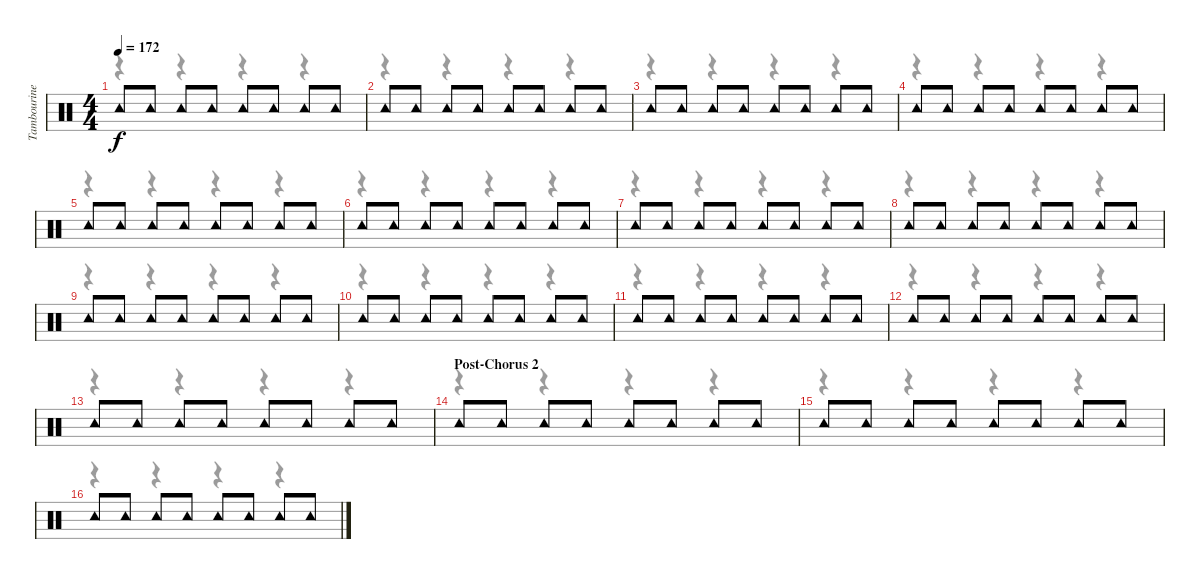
\track ("Tambourine" "Tambourine") {instrument percussion}
\staff {score}
\articulation defaults
\voice
\ts (4 4)
\tempo 172
\clef neutral
\ks c "Tambourine (hit)".8{dy f} "Tambourine (hit)".8 "Tambourine (hit)".8 "Tambourine (hit)".8 "Tambourine (hit)".8 "Tambourine (hit)".8 "Tambourine (hit)".8 "Tambourine (hit)".8
|
"Tambourine (hit)".8 "Tambourine (hit)".8 "Tambourine (hit)".8 "Tambourine (hit)".8 "Tambourine (hit)".8 "Tambourine (hit)".8 "Tambourine (hit)".8 "Tambourine (hit)".8 |
"Tambourine (hit)".8 "Tambourine (hit)".8 "Tambourine (hit)".8 "Tambourine (hit)".8 "Tambourine (hit)".8 "Tambourine (hit)".8 "Tambourine (hit)".8 "Tambourine (hit)".8 |
"Tambourine (hit)".8 "Tambourine (hit)".8 "Tambourine (hit)".8 "Tambourine (hit)".8 "Tambourine (hit)".8 "Tambourine (hit)".8 "Tambourine (hit)".8 "Tambourine (hit)".8 |
"Tambourine (hit)".8 "Tambourine (hit)".8 "Tambourine (hit)".8 "Tambourine (hit)".8 "Tambourine (hit)".8 "Tambourine (hit)".8 "Tambourine (hit)".8 "Tambourine (hit)".8 |
"Tambourine (hit)".8 "Tambourine (hit)".8 "Tambourine (hit)".8 "Tambourine (hit)".8 "Tambourine (hit)".8 "Tambourine (hit)".8 "Tambourine (hit)".8 "Tambourine (hit)".8 |
"Tambourine (hit)".8 "Tambourine (hit)".8 "Tambourine (hit)".8 "Tambourine (hit)".8 "Tambourine (hit)".8 "Tambourine (hit)".8 "Tambourine (hit)".8 "Tambourine (hit)".8 |
"Tambourine (hit)".8 "Tambourine (hit)".8 "Tambourine (hit)".8 "Tambourine (hit)".8 "Tambourine (hit)".8 "Tambourine (hit)".8 "Tambourine (hit)".8 "Tambourine (hit)".8 |
"Tambourine (hit)".8 "Tambourine (hit)".8 "Tambourine (hit)".8 "Tambourine (hit)".8 "Tambourine (hit)".8 "Tambourine (hit)".8 "Tambourine (hit)".8 "Tambourine (hit)".8 |
"Tambourine (hit)".8 "Tambourine (hit)".8 "Tambourine (hit)".8 "Tambourine (hit)".8 "Tambourine (hit)".8 "Tambourine (hit)".8 "Tambourine (hit)".8 "Tambourine (hit)".8 |
"Tambourine (hit)".8 "Tambourine (hit)".8 "Tambourine (hit)".8 "Tambourine (hit)".8 "Tambourine (hit)".8 "Tambourine (hit)".8 "Tambourine (hit)".8 "Tambourine (hit)".8 |
"Tambourine (hit)".8 "Tambourine (hit)".8 "Tambourine (hit)".8 "Tambourine (hit)".8 "Tambourine (hit)".8 "Tambourine (hit)".8 "Tambourine (hit)".8 "Tambourine (hit)".8 |
"Tambourine (hit)".8 "Tambourine (hit)".8 "Tambourine (hit)".8 "Tambourine (hit)".8 "Tambourine (hit)".8 "Tambourine (hit)".8 "Tambourine (hit)".8 "Tambourine (hit)".8 |
\section ("" "Post-Chorus 2")
"Tambourine (hit)".8 "Tambourine (hit)".8 "Tambourine (hit)".8 "Tambourine (hit)".8 "Tambourine (hit)".8 "Tambourine (hit)".8 "Tambourine (hit)".8 "Tambourine (hit)".8 |
"Tambourine (hit)".8 "Tambourine (hit)".8 "Tambourine (hit)".8 "Tambourine (hit)".8 "Tambourine (hit)".8 "Tambourine (hit)".8 "Tambourine (hit)".8 "Tambourine (hit)".8 |
"Tambourine (hit)".8 "Tambourine (hit)".8 "Tambourine (hit)".8 "Tambourine (hit)".8 "Tambourine (hit)".8 "Tambourine (hit)".8 "Tambourine (hit)".8 "Tambourine (hit)".8
\voice
\clef neutral
\ottava regular
\simile none
\ks c
r.4{dy f} r.4 r.4 r.4 |
r.4 r.4 r.4 r.4 |
r.4 r.4 r.4 r.4 |
r.4 r.4 r.4 r.4 |
r.4 r.4 r.4 r.4 |
r.4 r.4 r.4 r.4 |
r.4 r.4 r.4 r.4 |
r.4 r.4 r.4 r.4 |
r.4 r.4 r.4 r.4 |
r.4 r.4 r.4 r.4 |
r.4 r.4 r.4 r.4 |
r.4 r.4 r.4 r.4 |
r.4 r.4 r.4 r.4 |
r.4 r.4 r.4 r.4 |
r.4 r.4 r.4 r.4 |
r.4 r.4 r.4 r.4
